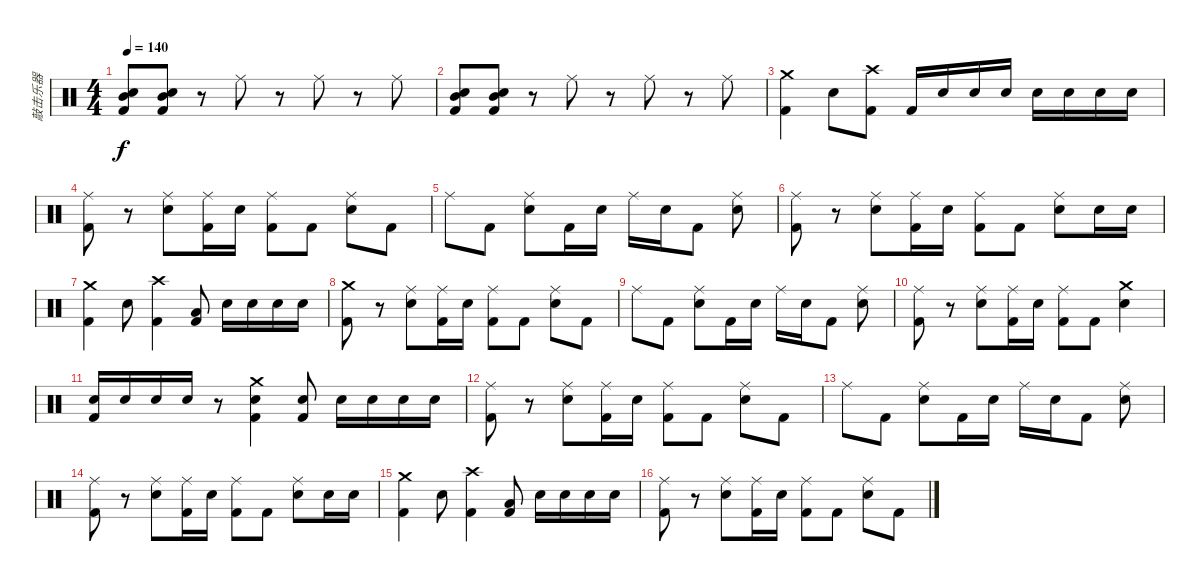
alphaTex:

\track ("敲击乐器" "敲击乐器") {instrument percussion}
\staff {score}
\articulation defaults
\ts (4 4)
\tempo 140
\clef neutral
\ks c
("Snare (hit) 2" "Mid Tom (hit)" "Kick (hit) 2").8{dy f} ("Snare (hit) 2" "Mid Tom (hit)" "Kick (hit) 2").8 r.8 "Ride (middle)".8 r.8 "Ride (middle)".8 r.8 "Ride (middle)".8 |
("Snare (hit) 2" "Mid Tom (hit)" "Kick (hit) 2").8 ("Snare (hit) 2" "Mid Tom (hit)" "Kick (hit) 2").8 r.8 "Ride (middle)".8 r.8 "Ride (middle)".8 r.8 "Ride (middle)".8 |
("Crash medium (hit)" "Kick (hit) 2").4 "Snare (hit) 2".8 ("Crash high (hit)" "Kick (hit) 2").8 "Kick (hit) 2".16 "Snare (hit) 2".16 "Snare (hit) 2".16 "Snare (hit) 2".16 "Snare (hit) 2".16 "Snare (hit) 2".16 "Snare (hit) 2".16 "Snare (hit) 2".16 |
("Ride (middle)" "Kick (hit) 2").8 r.8 ("Ride (middle)" "Snare (hit) 2").8 ("Ride (middle)" "Kick (hit) 2").16 "Snare (hit) 2".16 ("Ride (middle)" "Kick (hit) 2").8 "Kick (hit) 2".8 ("Ride (middle)" "Snare (hit) 2").8 "Kick (hit) 2".8 |
"Ride (middle)".8 "Kick (hit) 2".8 ("Ride (middle)" "Snare (hit) 2").8 "Kick (hit) 2".16 "Snare (hit) 2".16 "Ride (middle)".16 "Snare (hit) 2".16 "Kick (hit) 2".8 ("Ride (middle)" "Snare (hit) 2").8 |
("Ride (middle)" "Kick (hit) 2").8 r.8 ("Ride (middle)" "Snare (hit) 2").8 ("Ride (middle)" "Kick (hit) 2").16 "Snare (hit) 2".16 ("Ride (middle)" "Kick (hit) 2").8 "Kick (hit) 2".8 ("Ride (middle)" "Snare (hit) 2").8 "Snare (hit) 2".16 "Snare (hit) 2".16 |
("Crash medium (hit)" "Kick (hit) 2").4 "Snare (hit) 2".8 ("Crash high (hit)" "Kick (hit) 2").4 ("Low Tom (hit)" "Kick (hit) 2").8 "Snare (hit) 2".16 "Snare (hit) 2".16 "Snare (hit) 2".16 "Snare (hit) 2".16 |
("Crash medium (hit)" "Kick (hit) 2").8 r.8 ("Ride (middle)" "Snare (hit) 2").8 ("Ride (middle)" "Kick (hit) 2").16 "Snare (hit) 2".16 ("Ride (middle)" "Kick (hit) 2").8 "Kick (hit) 2".8 ("Ride (middle)" "Snare (hit) 2").8 "Kick (hit) 2".8 |
"Ride (middle)".8 "Kick (hit) 2".8 ("Ride (middle)" "Snare (hit) 2").8 "Kick (hit) 2".16 "Snare (hit) 2".16 "Ride (middle)".16 "Snare (hit) 2".16 "Kick (hit) 2".8 ("Ride (middle)" "Snare (hit) 2").8 |
("Ride (middle)" "Kick (hit) 2").8 r.8 ("Ride (middle)" "Snare (hit) 2").8 ("Ride (middle)" "Kick (hit) 2").16 "Snare (hit) 2".16 ("Ride (middle)" "Kick (hit) 2").8 "Kick (hit) 2".8 ("Crash medium (hit)" "Snare (hit) 2").4 |
("Snare (hit) 2" "Kick (hit) 2").16 "Snare (hit) 2".16 "Snare (hit) 2".16 "Snare (hit) 2".16 r.8 ("Crash medium (hit)" "Snare (hit) 2" "Kick (hit) 2").4 ("Snare (hit) 2" "Kick (hit) 2").8 "Snare (hit) 2".16 "Snare (hit) 2".16 "Snare (hit) 2".16 "Snare (hit) 2".16 |
("Ride (middle)" "Kick (hit) 2").8 r.8 ("Ride (middle)" "Snare (hit) 2").8 ("Ride (middle)" "Kick (hit) 2").16 "Snare (hit) 2".16 ("Ride (middle)" "Kick (hit) 2").8 "Kick (hit) 2".8 ("Ride (middle)" "Snare (hit) 2").8 "Kick (hit) 2".8 |
"Ride (middle)".8 "Kick (hit) 2".8 ("Ride (middle)" "Snare (hit) 2").8 "Kick (hit) 2".16 "Snare (hit) 2".16 "Ride (middle)".16 "Snare (hit) 2".16 "Kick (hit) 2".8 ("Ride (middle)" "Snare (hit) 2").8 |
("Ride (middle)" "Kick (hit) 2").8 r.8 ("Ride (middle)" "Snare (hit) 2").8 ("Ride (middle)" "Kick (hit) 2").16 "Snare (hit) 2".16 ("Ride (middle)" "Kick (hit) 2").8 "Kick (hit) 2".8 ("Ride (middle)" "Snare (hit) 2").8 "Snare (hit) 2".16 "Snare (hit) 2".16 |
("Crash medium (hit)" "Kick (hit) 2").4 "Snare (hit) 2".8 ("Crash high (hit)" "Kick (hit) 2").4 ("Low Tom (hit)" "Kick (hit) 2").8 "Snare (hit) 2".16 "Snare (hit) 2".16 "Snare (hit) 2".16 "Snare (hit) 2".16 |
("Ride (middle)" "Kick (hit) 2").8 r.8 ("Ride (middle)" "Snare (hit) 2").8 ("Ride (middle)" "Kick (hit) 2").16 "Snare (hit) 2".16 ("Ride (middle)" "Kick (hit) 2").8 "Kick (hit) 2".8 ("Ride (middle)" "Snare (hit) 2").8 "Kick (hit) 2".8
